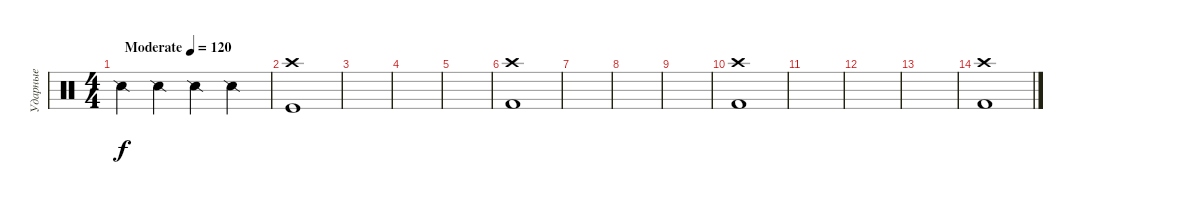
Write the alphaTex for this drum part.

\track ("Ударные" "Ударные") {instrument percussion}
\staff {score}
\articulation defaults
\ts (4 4)
\tempo (120 "Moderate")
\clef neutral
\ks c "Snare (side stick) 2".4{dy f} "Snare (side stick) 2".4 "Snare (side stick) 2".4 "Snare (side stick) 2".4
|
("Kick (hit)" "Crash high (hit)").1 |
|
|
|
("Kick (hit) 2" "Crash high (hit)").1 |
|
|
|
("Kick (hit) 2" "Crash high (hit)").1 |
|
|
|
("Kick (hit) 2" "Crash high (hit)").1
